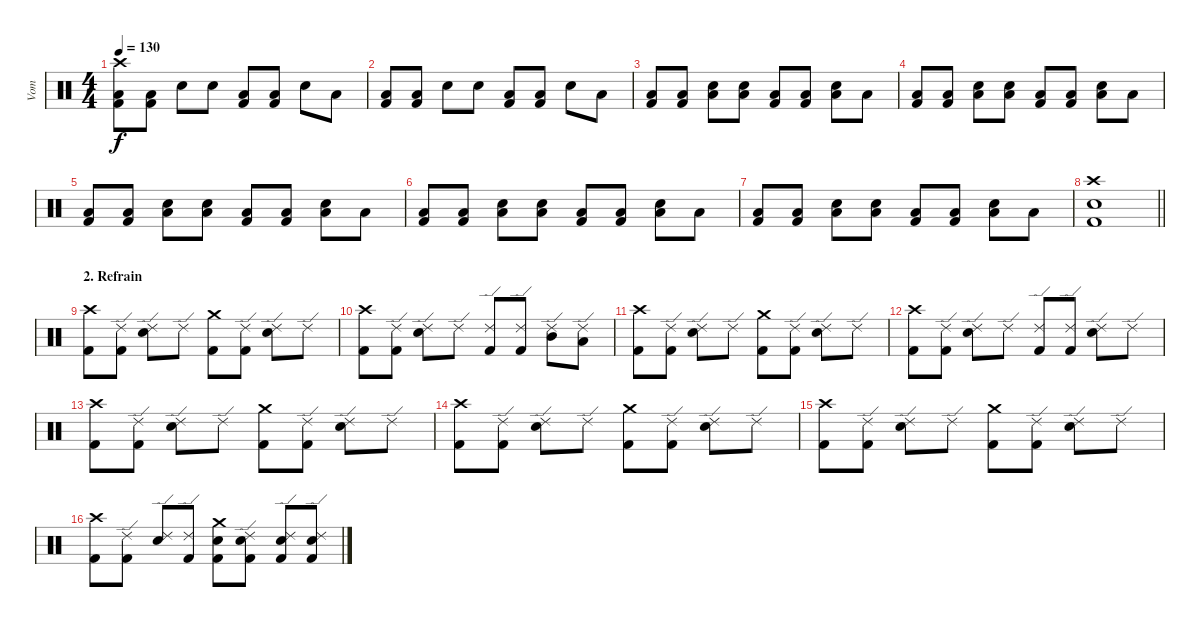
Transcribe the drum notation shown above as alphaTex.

\track ("Vom" "Vom") {instrument percussion}
\staff {score}
\articulation defaults
\ts (4 4)
\tempo 130
\clef neutral
\ks c
("Crash high (hit)" "Low Floor Tom (hit)" "Kick (hit) 2").8{dy f} ("Low Floor Tom (hit)" "Kick (hit) 2").8 "Snare (hit) 2".8 "Snare (hit) 2".8 ("Low Floor Tom (hit)" "Kick (hit) 2").8 ("Low Floor Tom (hit)" "Kick (hit) 2").8 "Snare (hit) 2".8 "Low Floor Tom (hit)".8 |
("Low Floor Tom (hit)" "Kick (hit) 2").8 ("Low Floor Tom (hit)" "Kick (hit) 2").8 "Snare (hit) 2".8 "Snare (hit) 2".8 ("Low Floor Tom (hit)" "Kick (hit) 2").8 ("Low Floor Tom (hit)" "Kick (hit) 2").8 "Snare (hit) 2".8 "Low Floor Tom (hit)".8 |
("Low Floor Tom (hit)" "Kick (hit) 2").8 ("Low Floor Tom (hit)" "Kick (hit) 2").8 ("Snare (hit) 2" "Low Floor Tom (hit)").8 ("Snare (hit) 2" "Low Floor Tom (hit)").8 ("Low Floor Tom (hit)" "Kick (hit) 2").8 ("Low Floor Tom (hit)" "Kick (hit) 2").8 ("Snare (hit) 2" "Low Floor Tom (hit)").8 "Low Floor Tom (hit)".8 |
("Low Floor Tom (hit)" "Kick (hit) 2").8 ("Low Floor Tom (hit)" "Kick (hit) 2").8 ("Snare (hit) 2" "Low Floor Tom (hit)").8 ("Snare (hit) 2" "Low Floor Tom (hit)").8 ("Low Floor Tom (hit)" "Kick (hit) 2").8 ("Low Floor Tom (hit)" "Kick (hit) 2").8 ("Snare (hit) 2" "Low Floor Tom (hit)").8 "Low Floor Tom (hit)".8 |
("Low Floor Tom (hit)" "Kick (hit) 2").8 ("Low Floor Tom (hit)" "Kick (hit) 2").8 ("Snare (hit) 2" "Low Floor Tom (hit)").8 ("Snare (hit) 2" "Low Floor Tom (hit)").8 ("Low Floor Tom (hit)" "Kick (hit) 2").8 ("Low Floor Tom (hit)" "Kick (hit) 2").8 ("Snare (hit) 2" "Low Floor Tom (hit)").8 "Low Floor Tom (hit)".8 |
("Low Floor Tom (hit)" "Kick (hit) 2").8 ("Low Floor Tom (hit)" "Kick (hit) 2").8 ("Snare (hit) 2" "Low Floor Tom (hit)").8 ("Snare (hit) 2" "Low Floor Tom (hit)").8 ("Low Floor Tom (hit)" "Kick (hit) 2").8 ("Low Floor Tom (hit)" "Kick (hit) 2").8 ("Snare (hit) 2" "Low Floor Tom (hit)").8 "Low Floor Tom (hit)".8 |
("Low Floor Tom (hit)" "Kick (hit) 2").8 ("Low Floor Tom (hit)" "Kick (hit) 2").8 ("Snare (hit) 2" "Low Floor Tom (hit)").8 ("Snare (hit) 2" "Low Floor Tom (hit)").8 ("Low Floor Tom (hit)" "Kick (hit) 2").8 ("Low Floor Tom (hit)" "Kick (hit) 2").8 ("Snare (hit) 2" "Low Floor Tom (hit)").8 "Low Floor Tom (hit)".8 |
\barLineRight lightlight
("Crash high (hit)" "Snare (hit) 2" "Kick (hit) 2").1 |
\section ("" "2. Refrain")
("Crash high (hit)" "Kick (hit) 2").8 ("Ride (edge) 2" "Kick (hit) 2").8 ("Ride (edge) 2" "Snare (hit) 2").8 "Ride (edge) 2".8 ("Crash medium (hit)" "Kick (hit) 2").8 ("Ride (edge) 2" "Kick (hit) 2").8 ("Ride (edge) 2" "Snare (hit) 2").8 "Ride (edge) 2".8 |
("Crash high (hit)" "Kick (hit) 2").8 ("Ride (edge) 2" "Kick (hit) 2").8 ("Ride (edge) 2" "Snare (hit) 2").8 "Ride (edge) 2".8 ("Ride (edge) 2" "Kick (hit) 2").8 ("Ride (edge) 2" "Kick (hit) 2").8 ("Ride (edge) 2" "Mid Tom (hit)").8 ("Ride (edge) 2" "Low Tom (hit)").8 |
("Crash high (hit)" "Kick (hit) 2").8 ("Ride (edge) 2" "Kick (hit) 2").8 ("Ride (edge) 2" "Snare (hit) 2").8 "Ride (edge) 2".8 ("Crash medium (hit)" "Kick (hit) 2").8 ("Ride (edge) 2" "Kick (hit) 2").8 ("Ride (edge) 2" "Snare (hit) 2").8 "Ride (edge) 2".8 |
("Crash high (hit)" "Kick (hit) 2").8 ("Ride (edge) 2" "Kick (hit) 2").8 ("Ride (edge) 2" "Snare (hit) 2").8 "Ride (edge) 2".8 ("Ride (edge) 2" "Kick (hit) 2").8 ("Ride (edge) 2" "Kick (hit) 2").8 ("Ride (edge) 2" "Snare (hit) 2").8 "Ride (edge) 2".8 |
("Crash high (hit)" "Kick (hit) 2").8 ("Ride (edge) 2" "Kick (hit) 2").8 ("Ride (edge) 2" "Snare (hit) 2").8 "Ride (edge) 2".8 ("Crash medium (hit)" "Kick (hit) 2").8 ("Ride (edge) 2" "Kick (hit) 2").8 ("Ride (edge) 2" "Snare (hit) 2").8 "Ride (edge) 2".8 |
("Crash high (hit)" "Kick (hit) 2").8 ("Ride (edge) 2" "Kick (hit) 2").8 ("Ride (edge) 2" "Snare (hit) 2").8 "Ride (edge) 2".8 ("Crash medium (hit)" "Kick (hit) 2").8 ("Ride (edge) 2" "Kick (hit) 2").8 ("Ride (edge) 2" "Snare (hit) 2").8 "Ride (edge) 2".8 |
("Crash high (hit)" "Kick (hit) 2").8 ("Ride (edge) 2" "Kick (hit) 2").8 ("Ride (edge) 2" "Snare (hit) 2").8 "Ride (edge) 2".8 ("Crash medium (hit)" "Kick (hit) 2").8 ("Ride (edge) 2" "Kick (hit) 2").8 ("Ride (edge) 2" "Snare (hit) 2").8 "Ride (edge) 2".8 |
("Crash high (hit)" "Kick (hit) 2").8 ("Ride (edge) 2" "Kick (hit) 2").8 ("Ride (edge) 2" "Snare (hit) 2").8 ("Ride (edge) 2" "Kick (hit) 2").8 ("Crash medium (hit)" "Snare (hit) 2" "Kick (hit) 2").8 ("Ride (edge) 2" "Snare (hit) 2" "Kick (hit) 2").8 ("Ride (edge) 2" "Snare (hit) 2" "Kick (hit) 2").8 ("Ride (edge) 2" "Snare (hit) 2" "Kick (hit) 2").8
